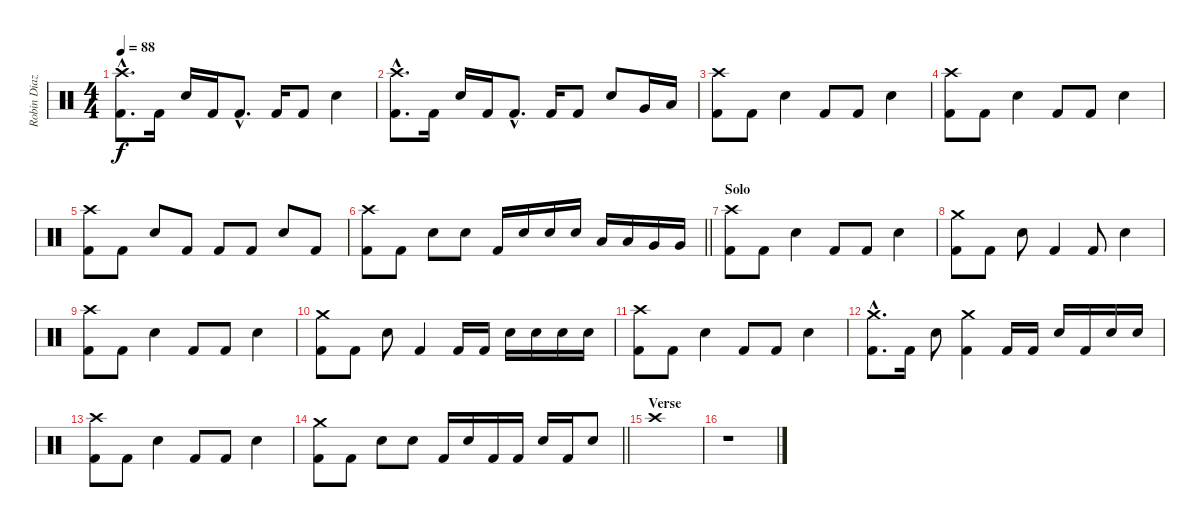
\track ("Robin Diaz (Drums)" "Robin Diaz") {instrument percussion}
\staff {score}
\articulation defaults
\ts (4 4)
\tempo 88
\clef neutral
\ks c
("Crash high (hit)"{hac} "Kick (hit) 2"{hac}).8{d dy f} "Kick (hit) 2".16 "Electric Snare (hit)".16 "Kick (hit) 2".16 "Kick (hit) 2"{hac}.8{d} "Kick (hit) 2".16 "Kick (hit) 2".8 "Electric Snare (hit)".4 |
("Crash high (hit)"{hac} "Kick (hit) 2"{hac}).8{d} "Kick (hit) 2".16 "Electric Snare (hit)".16 "Kick (hit) 2".16 "Kick (hit) 2"{hac}.8{d} "Kick (hit) 2".16 "Kick (hit) 2".8 "Electric Snare (hit)".8 "Very Low Tom (hit)".16 "Low Floor Tom (hit)".16 |
("Crash high (hit)" "Kick (hit) 2").8 "Kick (hit) 2".8 "Electric Snare (hit)".4 "Kick (hit) 2".8 "Kick (hit) 2".8 "Electric Snare (hit)".4 |
("Crash high (hit)" "Kick (hit) 2").8 "Kick (hit) 2".8 "Electric Snare (hit)".4 "Kick (hit) 2".8 "Kick (hit) 2".8 "Electric Snare (hit)".4 |
("Crash high (hit)" "Kick (hit) 2").8 "Kick (hit) 2".8 "Electric Snare (hit)".8 "Kick (hit) 2".8 "Kick (hit) 2".8 "Kick (hit) 2".8 "Electric Snare (hit)".8 "Kick (hit) 2".8 |
\barLineRight lightlight
("Crash high (hit)" "Kick (hit) 2").8 "Kick (hit) 2".8 "Electric Snare (hit)".8 "Electric Snare (hit)".8 "Kick (hit) 2".16 "Electric Snare (hit)".16 "Electric Snare (hit)".16 "Electric Snare (hit)".16 "Low Tom (hit)".16 "Low Tom (hit)".16 "Very Low Tom (hit)".16 "Very Low Tom (hit)".16 |
\section ("" "Solo")
("Crash high (hit)" "Kick (hit) 2").8 "Kick (hit) 2".8 "Electric Snare (hit)".4 "Kick (hit) 2".8 "Kick (hit) 2".8 "Electric Snare (hit)".4 |
("Crash medium (hit)" "Kick (hit) 2").8 "Kick (hit) 2".8 "Electric Snare (hit)".8 "Kick (hit) 2".4 "Kick (hit) 2".8 "Electric Snare (hit)".4 |
("Crash high (hit)" "Kick (hit) 2").8 "Kick (hit) 2".8 "Electric Snare (hit)".4 "Kick (hit) 2".8 "Kick (hit) 2".8 "Electric Snare (hit)".4 |
("Crash medium (hit)" "Kick (hit) 2").8 "Kick (hit) 2".8 "Electric Snare (hit)".8 "Kick (hit) 2".4 "Kick (hit) 2".16 "Kick (hit) 2".16 "Electric Snare (hit)".16 "Electric Snare (hit)".16 "Electric Snare (hit)".16 "Electric Snare (hit)".16 |
("Crash high (hit)" "Kick (hit) 2").8 "Kick (hit) 2".8 "Electric Snare (hit)".4 "Kick (hit) 2".8 "Kick (hit) 2".8 "Electric Snare (hit)".4 |
("Crash medium (hit)"{hac} "Kick (hit) 2"{hac}).8{d} "Kick (hit) 2".16 "Electric Snare (hit)".8 ("Crash medium (hit)" "Kick (hit) 2").4 "Kick (hit) 2".16 "Kick (hit) 2".16 "Electric Snare (hit)".16 "Kick (hit) 2".16 "Electric Snare (hit)".16 "Electric Snare (hit)".16 |
("Crash high (hit)" "Kick (hit) 2").8 "Kick (hit) 2".8 "Electric Snare (hit)".4 "Kick (hit) 2".8 "Kick (hit) 2".8 "Electric Snare (hit)".4 |
\barLineRight lightlight
("Crash medium (hit)" "Kick (hit) 2").8 "Kick (hit) 2".8 "Electric Snare (hit)".8 "Electric Snare (hit)".8 "Kick (hit) 2".16 "Electric Snare (hit)".16 "Kick (hit) 2".16 "Kick (hit) 2".16 "Electric Snare (hit)".16 "Kick (hit) 2".16 "Electric Snare (hit)".8 |
\section ("" "Verse")
"Crash high (hit)".1 |
r.1
